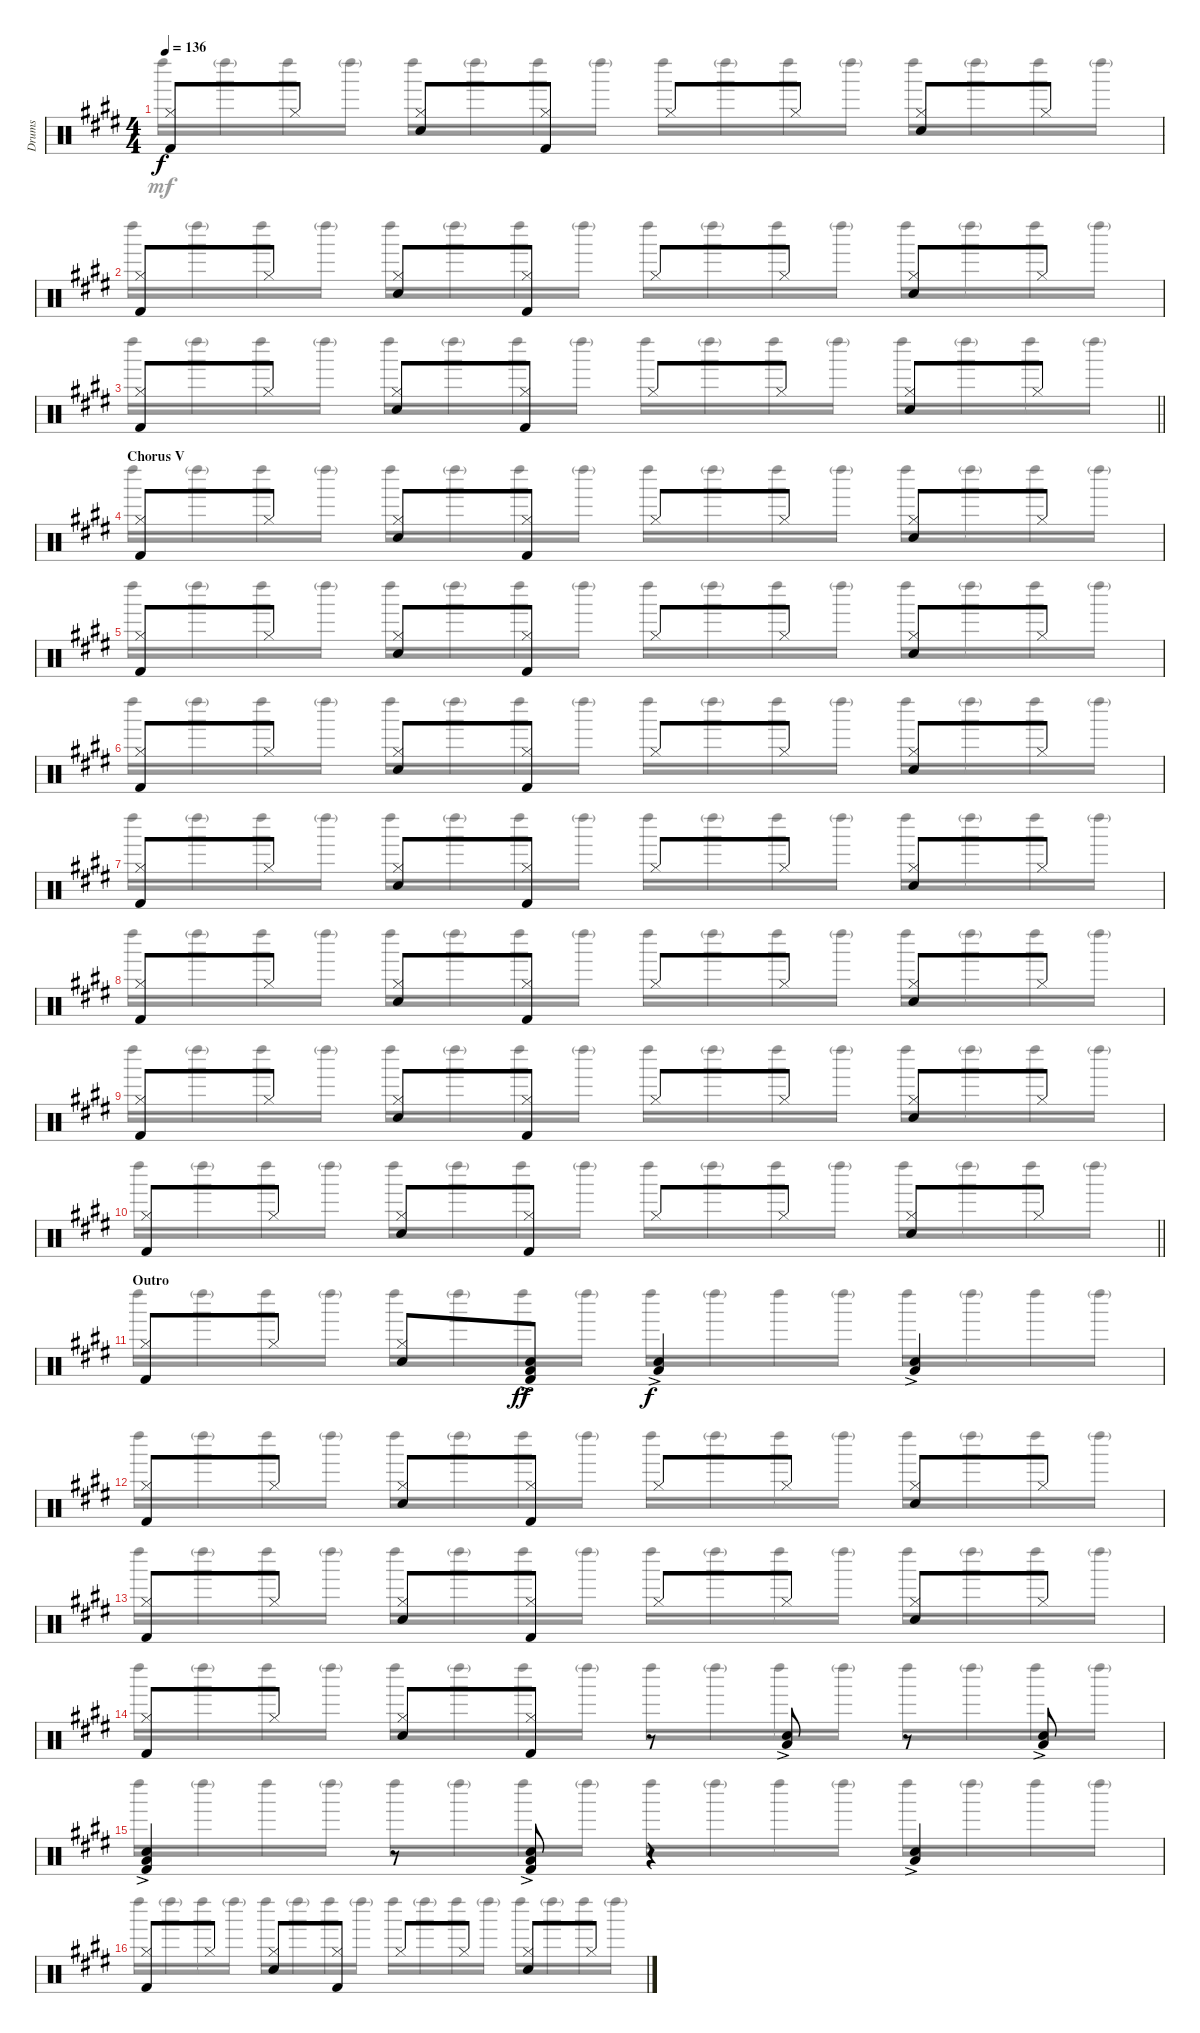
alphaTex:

\track ("Drums" "Drums") {instrument percussion}
\staff {score}
\articulation defaults
\voice
\ts (4 4)
\tempo 136
\clef neutral
\ks e
("Hi-Hat (closed)" "Kick (hit) 2").8{dy f} "Hi-Hat (closed)".8 ("Hi-Hat (closed)" "Snare (hit) 2").8 ("Hi-Hat (closed)" "Kick (hit) 2").8 "Hi-Hat (closed)".8 "Hi-Hat (closed)".8 ("Hi-Hat (closed)" "Snare (hit) 2").8 "Hi-Hat (closed)".8 |
("Hi-Hat (closed)" "Kick (hit) 2").8 "Hi-Hat (closed)".8 ("Hi-Hat (closed)" "Snare (hit) 2").8 ("Hi-Hat (closed)" "Kick (hit) 2").8 "Hi-Hat (closed)".8 "Hi-Hat (closed)".8 ("Hi-Hat (closed)" "Snare (hit) 2").8 "Hi-Hat (closed)".8 |
\barLineRight lightlight
("Hi-Hat (closed)" "Kick (hit) 2").8 "Hi-Hat (closed)".8 ("Hi-Hat (closed)" "Snare (hit) 2").8 ("Hi-Hat (closed)" "Kick (hit) 2").8 "Hi-Hat (closed)".8 "Hi-Hat (closed)".8 ("Hi-Hat (closed)" "Snare (hit) 2").8 "Hi-Hat (closed)".8 |
\section ("" "Chorus V")
("Hi-Hat (closed)" "Kick (hit) 2").8 "Hi-Hat (closed)".8 ("Hi-Hat (closed)" "Snare (hit) 2").8 ("Hi-Hat (closed)" "Kick (hit) 2").8 "Hi-Hat (closed)".8 "Hi-Hat (closed)".8 ("Hi-Hat (closed)" "Snare (hit) 2").8 "Hi-Hat (closed)".8 |
("Hi-Hat (closed)" "Kick (hit) 2").8 "Hi-Hat (closed)".8 ("Hi-Hat (closed)" "Snare (hit) 2").8 ("Hi-Hat (closed)" "Kick (hit) 2").8 "Hi-Hat (closed)".8 "Hi-Hat (closed)".8 ("Hi-Hat (closed)" "Snare (hit) 2").8 "Hi-Hat (closed)".8 |
("Hi-Hat (closed)" "Kick (hit) 2").8 "Hi-Hat (closed)".8 ("Hi-Hat (closed)" "Snare (hit) 2").8 ("Hi-Hat (closed)" "Kick (hit) 2").8 "Hi-Hat (closed)".8 "Hi-Hat (closed)".8 ("Hi-Hat (closed)" "Snare (hit) 2").8 "Hi-Hat (closed)".8 |
("Hi-Hat (closed)" "Kick (hit) 2").8 "Hi-Hat (closed)".8 ("Hi-Hat (closed)" "Snare (hit) 2").8 ("Hi-Hat (closed)" "Kick (hit) 2").8 "Hi-Hat (closed)".8 "Hi-Hat (closed)".8 ("Hi-Hat (closed)" "Snare (hit) 2").8 "Hi-Hat (closed)".8 |
("Hi-Hat (closed)" "Kick (hit) 2").8 "Hi-Hat (closed)".8 ("Hi-Hat (closed)" "Snare (hit) 2").8 ("Hi-Hat (closed)" "Kick (hit) 2").8 "Hi-Hat (closed)".8 "Hi-Hat (closed)".8 ("Hi-Hat (closed)" "Snare (hit) 2").8 "Hi-Hat (closed)".8 |
("Hi-Hat (closed)" "Kick (hit) 2").8 "Hi-Hat (closed)".8 ("Hi-Hat (closed)" "Snare (hit) 2").8 ("Hi-Hat (closed)" "Kick (hit) 2").8 "Hi-Hat (closed)".8 "Hi-Hat (closed)".8 ("Hi-Hat (closed)" "Snare (hit) 2").8 "Hi-Hat (closed)".8 |
\barLineRight lightlight
("Hi-Hat (closed)" "Kick (hit) 2").8 "Hi-Hat (closed)".8 ("Hi-Hat (closed)" "Snare (hit) 2").8 ("Hi-Hat (closed)" "Kick (hit) 2").8 "Hi-Hat (closed)".8 "Hi-Hat (closed)".8 ("Hi-Hat (closed)" "Snare (hit) 2").8 "Hi-Hat (closed)".8 |
\section ("" "Outro")
("Hi-Hat (closed)" "Kick (hit) 2").8 "Hi-Hat (closed)".8 ("Hi-Hat (closed)" "Snare (hit) 2").8 ("Low Tom (hit)"{ac} "Snare (hit) 2"{ac} "Kick (hit) 2"{ac}).8{dy ff} ("Low Tom (hit)"{ac} "Snare (hit) 2"{ac}).4{dy f} ("Low Tom (hit)"{ac} "Snare (hit) 2"{ac}).4 |
("Hi-Hat (closed)" "Kick (hit) 2").8 "Hi-Hat (closed)".8 ("Hi-Hat (closed)" "Snare (hit) 2").8 ("Hi-Hat (closed)" "Kick (hit) 2").8 "Hi-Hat (closed)".8 "Hi-Hat (closed)".8 ("Hi-Hat (closed)" "Snare (hit) 2").8 "Hi-Hat (closed)".8 |
("Hi-Hat (closed)" "Kick (hit) 2").8 "Hi-Hat (closed)".8 ("Hi-Hat (closed)" "Snare (hit) 2").8 ("Hi-Hat (closed)" "Kick (hit) 2").8 "Hi-Hat (closed)".8 "Hi-Hat (closed)".8 ("Hi-Hat (closed)" "Snare (hit) 2").8 "Hi-Hat (closed)".8 |
("Hi-Hat (closed)" "Kick (hit) 2").8 "Hi-Hat (closed)".8 ("Hi-Hat (closed)" "Snare (hit) 2").8 ("Hi-Hat (closed)" "Kick (hit) 2").8 r.8 ("Low Tom (hit)"{ac} "Snare (hit) 2"{ac}).8 r.8 ("Low Tom (hit)"{ac} "Snare (hit) 2"{ac}).8 |
("Low Tom (hit)"{ac} "Snare (hit) 2"{ac} "Kick (hit) 2"{ac}).4 r.8 ("Low Tom (hit)"{ac} "Snare (hit) 2"{ac} "Kick (hit) 2"{ac}).8 r.4 ("Low Tom (hit)"{ac} "Snare (hit) 2"{ac}).4 |
("Hi-Hat (closed)" "Kick (hit) 2").8 "Hi-Hat (closed)".8 ("Hi-Hat (closed)" "Snare (hit) 2").8 ("Hi-Hat (closed)" "Kick (hit) 2").8 "Hi-Hat (closed)".8 "Hi-Hat (closed)".8 ("Hi-Hat (closed)" "Snare (hit) 2").8 "Hi-Hat (closed)".8
\voice
\clef neutral
\ottava regular
\simile none
\ks e "Left Maraca (hit)".16{dy mf} "Left Maraca (hit)"{g}.16 "Left Maraca (hit)".16 "Left Maraca (hit)"{g}.16 "Left Maraca (hit)".16 "Left Maraca (hit)"{g}.16 "Left Maraca (hit)".16 "Left Maraca (hit)"{g}.16 "Left Maraca (hit)".16 "Left Maraca (hit)"{g}.16 "Left Maraca (hit)".16 "Left Maraca (hit)"{g}.16 "Left Maraca (hit)".16 "Left Maraca (hit)"{g}.16 "Left Maraca (hit)".16 "Left Maraca (hit)"{g}.16
|
"Left Maraca (hit)".16 "Left Maraca (hit)"{g}.16 "Left Maraca (hit)".16 "Left Maraca (hit)"{g}.16 "Left Maraca (hit)".16 "Left Maraca (hit)"{g}.16 "Left Maraca (hit)".16 "Left Maraca (hit)"{g}.16 "Left Maraca (hit)".16 "Left Maraca (hit)"{g}.16 "Left Maraca (hit)".16 "Left Maraca (hit)"{g}.16 "Left Maraca (hit)".16 "Left Maraca (hit)"{g}.16 "Left Maraca (hit)".16 "Left Maraca (hit)"{g}.16 |
\barLineRight lightlight "Left Maraca (hit)".16 "Left Maraca (hit)"{g}.16 "Left Maraca (hit)".16 "Left Maraca (hit)"{g}.16 "Left Maraca (hit)".16 "Left Maraca (hit)"{g}.16 "Left Maraca (hit)".16 "Left Maraca (hit)"{g}.16 "Left Maraca (hit)".16 "Left Maraca (hit)"{g}.16 "Left Maraca (hit)".16 "Left Maraca (hit)"{g}.16 "Left Maraca (hit)".16 "Left Maraca (hit)"{g}.16 "Left Maraca (hit)".16 "Left Maraca (hit)"{g}.16
|
"Left Maraca (hit)".16 "Left Maraca (hit)"{g}.16 "Left Maraca (hit)".16 "Left Maraca (hit)"{g}.16 "Left Maraca (hit)".16 "Left Maraca (hit)"{g}.16 "Left Maraca (hit)".16 "Left Maraca (hit)"{g}.16 "Left Maraca (hit)".16 "Left Maraca (hit)"{g}.16 "Left Maraca (hit)".16 "Left Maraca (hit)"{g}.16 "Left Maraca (hit)".16 "Left Maraca (hit)"{g}.16 "Left Maraca (hit)".16 "Left Maraca (hit)"{g}.16 |
"Left Maraca (hit)".16 "Left Maraca (hit)"{g}.16 "Left Maraca (hit)".16 "Left Maraca (hit)"{g}.16 "Left Maraca (hit)".16 "Left Maraca (hit)"{g}.16 "Left Maraca (hit)".16 "Left Maraca (hit)"{g}.16 "Left Maraca (hit)".16 "Left Maraca (hit)"{g}.16 "Left Maraca (hit)".16 "Left Maraca (hit)"{g}.16 "Left Maraca (hit)".16 "Left Maraca (hit)"{g}.16 "Left Maraca (hit)".16 "Left Maraca (hit)"{g}.16 |
"Left Maraca (hit)".16 "Left Maraca (hit)"{g}.16 "Left Maraca (hit)".16 "Left Maraca (hit)"{g}.16 "Left Maraca (hit)".16 "Left Maraca (hit)"{g}.16 "Left Maraca (hit)".16 "Left Maraca (hit)"{g}.16 "Left Maraca (hit)".16 "Left Maraca (hit)"{g}.16 "Left Maraca (hit)".16 "Left Maraca (hit)"{g}.16 "Left Maraca (hit)".16 "Left Maraca (hit)"{g}.16 "Left Maraca (hit)".16 "Left Maraca (hit)"{g}.16 |
"Left Maraca (hit)".16 "Left Maraca (hit)"{g}.16 "Left Maraca (hit)".16 "Left Maraca (hit)"{g}.16 "Left Maraca (hit)".16 "Left Maraca (hit)"{g}.16 "Left Maraca (hit)".16 "Left Maraca (hit)"{g}.16 "Left Maraca (hit)".16 "Left Maraca (hit)"{g}.16 "Left Maraca (hit)".16 "Left Maraca (hit)"{g}.16 "Left Maraca (hit)".16 "Left Maraca (hit)"{g}.16 "Left Maraca (hit)".16 "Left Maraca (hit)"{g}.16 |
"Left Maraca (hit)".16 "Left Maraca (hit)"{g}.16 "Left Maraca (hit)".16 "Left Maraca (hit)"{g}.16 "Left Maraca (hit)".16 "Left Maraca (hit)"{g}.16 "Left Maraca (hit)".16 "Left Maraca (hit)"{g}.16 "Left Maraca (hit)".16 "Left Maraca (hit)"{g}.16 "Left Maraca (hit)".16 "Left Maraca (hit)"{g}.16 "Left Maraca (hit)".16 "Left Maraca (hit)"{g}.16 "Left Maraca (hit)".16 "Left Maraca (hit)"{g}.16 |
"Left Maraca (hit)".16 "Left Maraca (hit)"{g}.16 "Left Maraca (hit)".16 "Left Maraca (hit)"{g}.16 "Left Maraca (hit)".16 "Left Maraca (hit)"{g}.16 "Left Maraca (hit)".16 "Left Maraca (hit)"{g}.16 "Left Maraca (hit)".16 "Left Maraca (hit)"{g}.16 "Left Maraca (hit)".16 "Left Maraca (hit)"{g}.16 "Left Maraca (hit)".16 "Left Maraca (hit)"{g}.16 "Left Maraca (hit)".16 "Left Maraca (hit)"{g}.16 |
\barLineRight lightlight "Left Maraca (hit)".16 "Left Maraca (hit)"{g}.16 "Left Maraca (hit)".16 "Left Maraca (hit)"{g}.16 "Left Maraca (hit)".16 "Left Maraca (hit)"{g}.16 "Left Maraca (hit)".16 "Left Maraca (hit)"{g}.16 "Left Maraca (hit)".16 "Left Maraca (hit)"{g}.16 "Left Maraca (hit)".16 "Left Maraca (hit)"{g}.16 "Left Maraca (hit)".16 "Left Maraca (hit)"{g}.16 "Left Maraca (hit)".16 "Left Maraca (hit)"{g}.16
|
"Left Maraca (hit)".16 "Left Maraca (hit)"{g}.16 "Left Maraca (hit)".16 "Left Maraca (hit)"{g}.16 "Left Maraca (hit)".16 "Left Maraca (hit)"{g}.16 "Left Maraca (hit)".16 "Left Maraca (hit)"{g}.16 "Left Maraca (hit)".16 "Left Maraca (hit)"{g}.16 "Left Maraca (hit)".16 "Left Maraca (hit)"{g}.16 "Left Maraca (hit)".16 "Left Maraca (hit)"{g}.16 "Left Maraca (hit)".16 "Left Maraca (hit)"{g}.16 |
"Left Maraca (hit)".16 "Left Maraca (hit)"{g}.16 "Left Maraca (hit)".16 "Left Maraca (hit)"{g}.16 "Left Maraca (hit)".16 "Left Maraca (hit)"{g}.16 "Left Maraca (hit)".16 "Left Maraca (hit)"{g}.16 "Left Maraca (hit)".16 "Left Maraca (hit)"{g}.16 "Left Maraca (hit)".16 "Left Maraca (hit)"{g}.16 "Left Maraca (hit)".16 "Left Maraca (hit)"{g}.16 "Left Maraca (hit)".16 "Left Maraca (hit)"{g}.16 |
"Left Maraca (hit)".16 "Left Maraca (hit)"{g}.16 "Left Maraca (hit)".16 "Left Maraca (hit)"{g}.16 "Left Maraca (hit)".16 "Left Maraca (hit)"{g}.16 "Left Maraca (hit)".16 "Left Maraca (hit)"{g}.16 "Left Maraca (hit)".16 "Left Maraca (hit)"{g}.16 "Left Maraca (hit)".16 "Left Maraca (hit)"{g}.16 "Left Maraca (hit)".16 "Left Maraca (hit)"{g}.16 "Left Maraca (hit)".16 "Left Maraca (hit)"{g}.16 |
"Left Maraca (hit)".16 "Left Maraca (hit)"{g}.16 "Left Maraca (hit)".16 "Left Maraca (hit)"{g}.16 "Left Maraca (hit)".16 "Left Maraca (hit)"{g}.16 "Left Maraca (hit)".16 "Left Maraca (hit)"{g}.16 "Left Maraca (hit)".16 "Left Maraca (hit)"{g}.16 "Left Maraca (hit)".16 "Left Maraca (hit)"{g}.16 "Left Maraca (hit)".16 "Left Maraca (hit)"{g}.16 "Left Maraca (hit)".16 "Left Maraca (hit)"{g}.16 |
"Left Maraca (hit)".16 "Left Maraca (hit)"{g}.16 "Left Maraca (hit)".16 "Left Maraca (hit)"{g}.16 "Left Maraca (hit)".16 "Left Maraca (hit)"{g}.16 "Left Maraca (hit)".16 "Left Maraca (hit)"{g}.16 "Left Maraca (hit)".16 "Left Maraca (hit)"{g}.16 "Left Maraca (hit)".16 "Left Maraca (hit)"{g}.16 "Left Maraca (hit)".16 "Left Maraca (hit)"{g}.16 "Left Maraca (hit)".16 "Left Maraca (hit)"{g}.16 |
"Left Maraca (hit)".16 "Left Maraca (hit)"{g}.16 "Left Maraca (hit)".16 "Left Maraca (hit)"{g}.16 "Left Maraca (hit)".16 "Left Maraca (hit)"{g}.16 "Left Maraca (hit)".16 "Left Maraca (hit)"{g}.16 "Left Maraca (hit)".16 "Left Maraca (hit)"{g}.16 "Left Maraca (hit)".16 "Left Maraca (hit)"{g}.16 "Left Maraca (hit)".16 "Left Maraca (hit)"{g}.16 "Left Maraca (hit)".16 "Left Maraca (hit)"{g}.16
